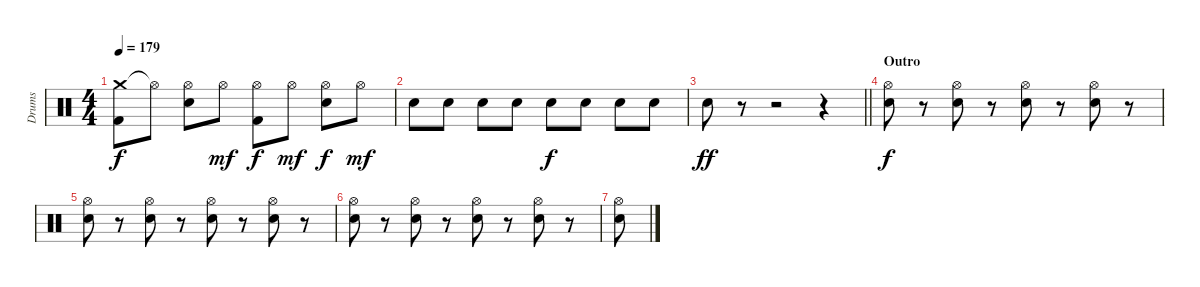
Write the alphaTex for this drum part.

\track ("Drums" "Drums") {instrument percussion}
\staff {score}
\articulation defaults
\ts (4 4)
\tempo 179
\clef neutral
\ks c
("Crash medium (hit)" "Kick (hit) 2").8{dy f} "Hi-Hat (open)"{t}.8 ("Hi-Hat (open)" "Electric Snare (hit)").8 "Hi-Hat (open)".8{dy mf} ("Hi-Hat (open)" "Kick (hit) 2").8{dy f} "Hi-Hat (open)".8{dy mf} ("Hi-Hat (open)" "Electric Snare (hit)").8{dy f} "Hi-Hat (open)".8{dy mf} |
"Electric Snare (hit)".8 "Electric Snare (hit)".8 "Electric Snare (hit)".8 "Electric Snare (hit)".8 "Electric Snare (hit)".8{dy f} "Electric Snare (hit)".8 "Electric Snare (hit)".8 "Electric Snare (hit)".8 |
\barLineRight lightlight "Electric Snare (hit)".8{dy ff}
r.8 r.2 r.4 |
\section ("" "Outro")
("Hi-Hat (open)" "Electric Snare (hit)").8{dy f} r.8 ("Hi-Hat (open)" "Electric Snare (hit)").8 r.8 ("Hi-Hat (open)" "Electric Snare (hit)").8 r.8 ("Hi-Hat (open)" "Electric Snare (hit)").8 r.8 |
("Hi-Hat (open)" "Electric Snare (hit)").8 r.8 ("Hi-Hat (open)" "Electric Snare (hit)").8 r.8 ("Hi-Hat (open)" "Electric Snare (hit)").8 r.8 ("Hi-Hat (open)" "Electric Snare (hit)").8 r.8 |
("Hi-Hat (open)" "Electric Snare (hit)").8 r.8 ("Hi-Hat (open)" "Electric Snare (hit)").8 r.8 ("Hi-Hat (open)" "Electric Snare (hit)").8 r.8 ("Hi-Hat (open)" "Electric Snare (hit)").8 r.8 |
("Hi-Hat (open)" "Electric Snare (hit)").8
